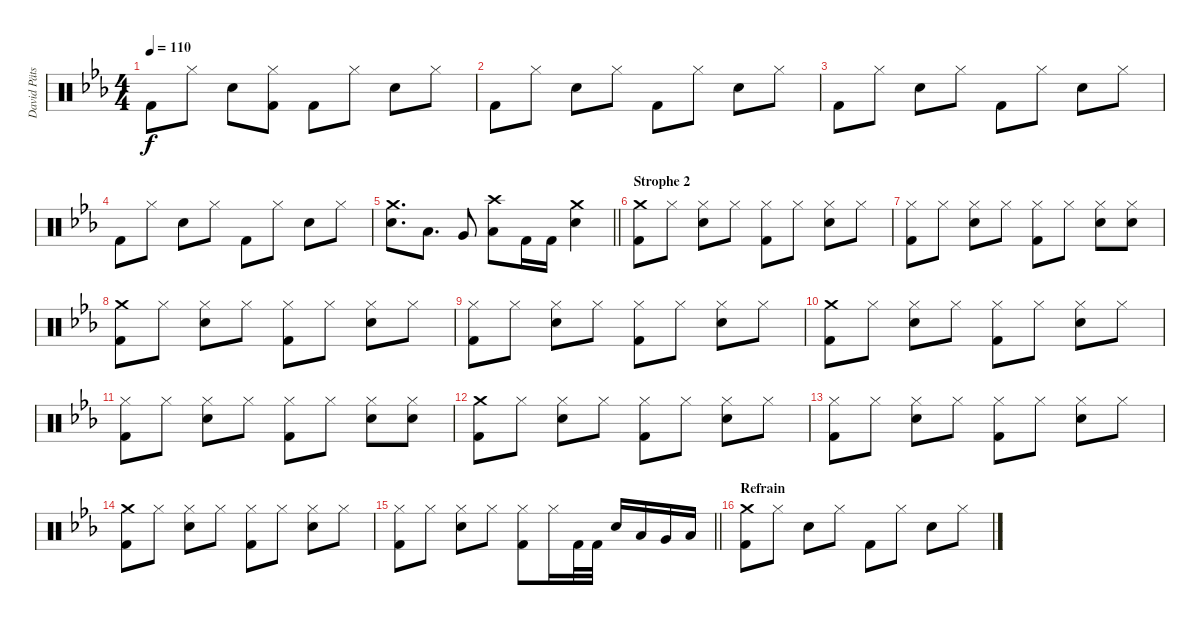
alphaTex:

\track ("David Pätsch" "David Päts") {instrument percussion}
\staff {score}
\articulation defaults
\ts (4 4)
\tempo 110
\clef neutral
\ks cminor "Kick (hit) 2".8{dy f} "Hi-Hat (closed)".8 "Snare (hit) 2".8
("Kick (hit) 2" "Hi-Hat (closed)").8 "Kick (hit) 2".8 "Hi-Hat (closed)".8 "Snare (hit) 2".8 "Hi-Hat (closed)".8 |
"Kick (hit) 2".8 "Hi-Hat (closed)".8 "Snare (hit) 2".8 "Hi-Hat (closed)".8 "Kick (hit) 2".8 "Hi-Hat (closed)".8 "Snare (hit) 2".8 "Hi-Hat (closed)".8 |
"Kick (hit) 2".8 "Hi-Hat (closed)".8 "Snare (hit) 2".8 "Hi-Hat (closed)".8 "Kick (hit) 2".8 "Hi-Hat (closed)".8 "Snare (hit) 2".8 "Hi-Hat (closed)".8 |
"Kick (hit) 2".8 "Hi-Hat (closed)".8 "Snare (hit) 2".8 "Hi-Hat (closed)".8 "Kick (hit) 2".8 "Hi-Hat (closed)".8 "Snare (hit) 2".8 "Hi-Hat (closed)".8 |
\barLineRight lightlight
("Snare (hit) 2" "Crash medium (hit)").8{d} "Low Tom (hit)".8{d} "Very Low Tom (hit)".8 ("Crash high (hit)" "Low Floor Tom (hit)").8 "Kick (hit) 2".16 "Kick (hit) 2".16 ("Crash medium (hit)" "Snare (hit) 2").4 |
\section ("" "Strophe 2")
("Kick (hit) 2" "Crash medium (hit)").8 "Hi-Hat (closed)".8 ("Snare (hit) 2" "Hi-Hat (closed)").8 "Hi-Hat (closed)".8 ("Kick (hit) 2" "Hi-Hat (closed)").8 "Hi-Hat (closed)".8 ("Snare (hit) 2" "Hi-Hat (closed)").8 "Hi-Hat (closed)".8 |
("Kick (hit) 2" "Hi-Hat (closed)").8 "Hi-Hat (closed)".8 ("Snare (hit) 2" "Hi-Hat (closed)").8 "Hi-Hat (closed)".8 ("Kick (hit) 2" "Hi-Hat (closed)").8 "Hi-Hat (closed)".8 ("Snare (hit) 2" "Hi-Hat (closed)").8 ("Snare (hit) 2" "Hi-Hat (closed)").8 |
("Kick (hit) 2" "Crash medium (hit)").8 "Hi-Hat (closed)".8 ("Snare (hit) 2" "Hi-Hat (closed)").8 "Hi-Hat (closed)".8 ("Kick (hit) 2" "Hi-Hat (closed)").8 "Hi-Hat (closed)".8 ("Snare (hit) 2" "Hi-Hat (closed)").8 "Hi-Hat (closed)".8 |
("Kick (hit) 2" "Hi-Hat (closed)").8 "Hi-Hat (closed)".8 ("Snare (hit) 2" "Hi-Hat (closed)").8 "Hi-Hat (closed)".8 ("Kick (hit) 2" "Hi-Hat (closed)").8 "Hi-Hat (closed)".8 ("Snare (hit) 2" "Hi-Hat (closed)").8 "Hi-Hat (closed)".8 |
("Kick (hit) 2" "Crash medium (hit)").8 "Hi-Hat (closed)".8 ("Snare (hit) 2" "Hi-Hat (closed)").8 "Hi-Hat (closed)".8 ("Kick (hit) 2" "Hi-Hat (closed)").8 "Hi-Hat (closed)".8 ("Snare (hit) 2" "Hi-Hat (closed)").8 "Hi-Hat (closed)".8 |
("Kick (hit) 2" "Hi-Hat (closed)").8 "Hi-Hat (closed)".8 ("Snare (hit) 2" "Hi-Hat (closed)").8 "Hi-Hat (closed)".8 ("Kick (hit) 2" "Hi-Hat (closed)").8 "Hi-Hat (closed)".8 ("Snare (hit) 2" "Hi-Hat (closed)").8 ("Snare (hit) 2" "Hi-Hat (closed)").8 |
("Kick (hit) 2" "Crash medium (hit)").8 "Hi-Hat (closed)".8 ("Snare (hit) 2" "Hi-Hat (closed)").8 "Hi-Hat (closed)".8 ("Kick (hit) 2" "Hi-Hat (closed)").8 "Hi-Hat (closed)".8 ("Snare (hit) 2" "Hi-Hat (closed)").8 "Hi-Hat (closed)".8 |
("Kick (hit) 2" "Hi-Hat (closed)").8 "Hi-Hat (closed)".8 ("Snare (hit) 2" "Hi-Hat (closed)").8 "Hi-Hat (closed)".8 ("Kick (hit) 2" "Hi-Hat (closed)").8 "Hi-Hat (closed)".8 ("Snare (hit) 2" "Hi-Hat (closed)").8 "Hi-Hat (closed)".8 |
("Kick (hit) 2" "Crash medium (hit)").8 "Hi-Hat (closed)".8 ("Snare (hit) 2" "Hi-Hat (closed)").8 "Hi-Hat (closed)".8 ("Kick (hit) 2" "Hi-Hat (closed)").8 "Hi-Hat (closed)".8 ("Snare (hit) 2" "Hi-Hat (closed)").8 "Hi-Hat (closed)".8 |
\barLineRight lightlight
("Kick (hit) 2" "Hi-Hat (closed)").8 "Hi-Hat (closed)".8 ("Snare (hit) 2" "Hi-Hat (closed)").8 "Hi-Hat (closed)".8 ("Kick (hit) 2" "Hi-Hat (closed)").8 "Hi-Hat (closed)".16 "Kick (hit) 2".32 "Kick (hit) 2".32 "Snare (hit) 2".16 "Low Tom (hit)".16 "Very Low Tom (hit)".16 "Low Floor Tom (hit)".16 |
\section ("" "Refrain")
("Kick (hit) 2" "Crash medium (hit)").8 "Hi-Hat (closed)".8 "Snare (hit) 2".8 "Hi-Hat (closed)".8 "Kick (hit) 2".8 "Hi-Hat (closed)".8 "Snare (hit) 2".8 "Hi-Hat (closed)".8
